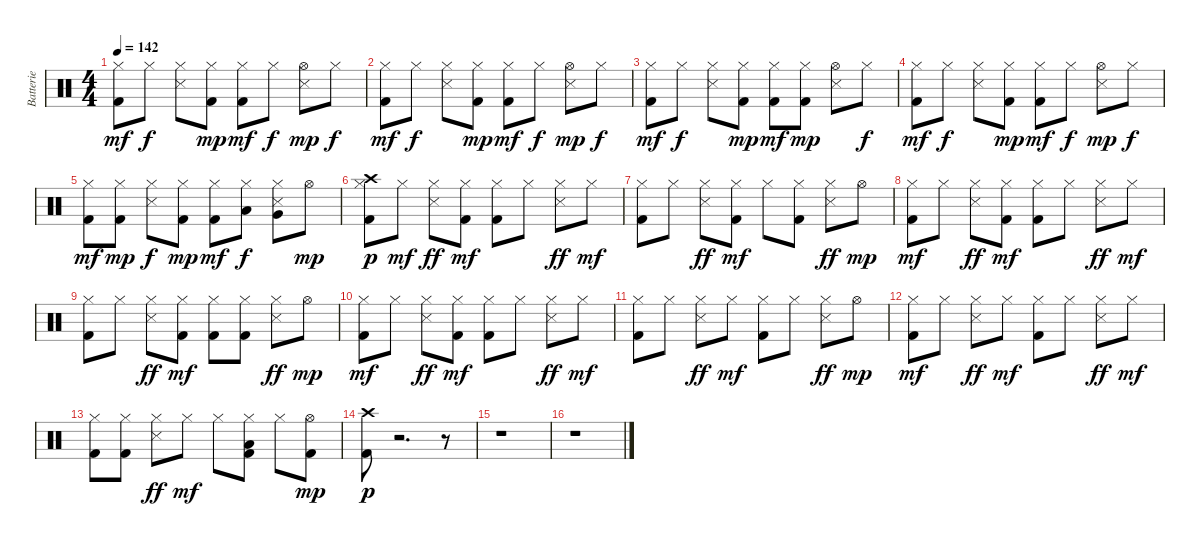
\track ("Batterie" "Batterie") {instrument percussion}
\staff {score}
\articulation defaults
\ts (4 4)
\tempo 142
\clef neutral
\ks c
("Kick (hit) 2" "Hi-Hat (closed)").8{dy mf} "Hi-Hat (closed)".8{dy f} ("Hi-Hat (closed)" "Snare (side stick) 3").8 ("Kick (hit) 2" "Hi-Hat (closed)").8{dy mp} ("Kick (hit) 2" "Hi-Hat (closed)").8{dy mf} "Hi-Hat (closed)".8{dy f} ("Hi-Hat (open)" "Snare (side stick) 3").8{dy mp} "Hi-Hat (closed)".8{dy f} |
("Kick (hit) 2" "Hi-Hat (closed)").8{dy mf} "Hi-Hat (closed)".8{dy f} ("Hi-Hat (closed)" "Snare (side stick) 3").8 ("Kick (hit) 2" "Hi-Hat (closed)").8{dy mp} ("Kick (hit) 2" "Hi-Hat (closed)").8{dy mf} "Hi-Hat (closed)".8{dy f} ("Hi-Hat (open)" "Snare (side stick) 3").8{dy mp} "Hi-Hat (closed)".8{dy f} |
("Kick (hit) 2" "Hi-Hat (closed)").8{dy mf} "Hi-Hat (closed)".8{dy f} ("Hi-Hat (closed)" "Snare (side stick) 3").8 ("Kick (hit) 2" "Hi-Hat (closed)").8{dy mp} ("Kick (hit) 2" "Hi-Hat (closed)").8{dy mf} ("Kick (hit) 2" "Hi-Hat (closed)").8{dy mp} ("Hi-Hat (open)" "Snare (side stick) 3").8 "Hi-Hat (closed)".8{dy f} |
("Kick (hit) 2" "Hi-Hat (closed)").8{dy mf} "Hi-Hat (closed)".8{dy f} ("Hi-Hat (closed)" "Snare (side stick) 3").8 ("Kick (hit) 2" "Hi-Hat (closed)").8{dy mp} ("Kick (hit) 2" "Hi-Hat (closed)").8{dy mf} "Hi-Hat (closed)".8{dy f} ("Hi-Hat (open)" "Snare (side stick) 3").8{dy mp} "Hi-Hat (closed)".8{dy f} |
("Kick (hit) 2" "Hi-Hat (closed)").8{dy mf} ("Kick (hit) 2" "Hi-Hat (closed)").8{dy mp} ("Hi-Hat (closed)" "Snare (side stick) 3").8{dy f} ("Kick (hit) 2" "Hi-Hat (closed)").8{dy mp} ("Kick (hit) 2" "Hi-Hat (closed)").8{dy mf} ("Hi-Hat (closed)" "Low Floor Tom (hit)").8{dy f} ("Hi-Hat (closed)" "Very Low Tom (hit)" "Snare (side stick) 3").8 "Hi-Hat (open)".8{dy mp} |
("Kick (hit) 2" "Hi-Hat (closed)" "Crash high (hit)").8{dy p} "Hi-Hat (closed)".8{dy mf} ("Hi-Hat (closed)" "Snare (side stick) 3").8{dy ff} ("Kick (hit) 2" "Hi-Hat (closed)").8{dy mf} ("Kick (hit) 2" "Hi-Hat (closed)").8 "Hi-Hat (closed)".8 ("Hi-Hat (closed)" "Snare (side stick) 3").8{dy ff} "Hi-Hat (closed)".8{dy mf} |
("Kick (hit) 2" "Hi-Hat (closed)").8 "Hi-Hat (closed)".8 ("Hi-Hat (closed)" "Snare (side stick) 3").8{dy ff} ("Kick (hit) 2" "Hi-Hat (closed)").8{dy mf} "Hi-Hat (closed)".8 ("Kick (hit) 2" "Hi-Hat (closed)").8 ("Hi-Hat (closed)" "Snare (side stick) 3").8{dy ff} "Hi-Hat (open)".8{dy mp} |
("Kick (hit) 2" "Hi-Hat (closed)").8{dy mf} "Hi-Hat (closed)".8 ("Hi-Hat (closed)" "Snare (side stick) 3").8{dy ff} ("Kick (hit) 2" "Hi-Hat (closed)").8{dy mf} ("Kick (hit) 2" "Hi-Hat (closed)").8 "Hi-Hat (closed)".8 ("Hi-Hat (closed)" "Snare (side stick) 3").8{dy ff} "Hi-Hat (closed)".8{dy mf} |
("Kick (hit) 2" "Hi-Hat (closed)").8 "Hi-Hat (closed)".8 ("Hi-Hat (closed)" "Snare (side stick) 3").8{dy ff} ("Kick (hit) 2" "Hi-Hat (closed)").8{dy mf} ("Kick (hit) 2" "Hi-Hat (closed)").8 ("Kick (hit) 2" "Hi-Hat (closed)").8 ("Hi-Hat (closed)" "Snare (side stick) 3").8{dy ff} "Hi-Hat (open)".8{dy mp} |
("Kick (hit) 2" "Hi-Hat (closed)").8{dy mf} "Hi-Hat (closed)".8 ("Hi-Hat (closed)" "Snare (side stick) 3").8{dy ff} ("Kick (hit) 2" "Hi-Hat (closed)").8{dy mf} ("Kick (hit) 2" "Hi-Hat (closed)").8 "Hi-Hat (closed)".8 ("Hi-Hat (closed)" "Snare (side stick) 3").8{dy ff} "Hi-Hat (closed)".8{dy mf} |
("Kick (hit) 2" "Hi-Hat (closed)").8 "Hi-Hat (closed)".8 ("Hi-Hat (closed)" "Snare (side stick) 3").8{dy ff} "Hi-Hat (closed)".8{dy mf} ("Kick (hit) 2" "Hi-Hat (closed)").8 "Hi-Hat (closed)".8 ("Hi-Hat (closed)" "Snare (side stick) 3").8{dy ff} "Hi-Hat (open)".8{dy mp} |
("Kick (hit) 2" "Hi-Hat (closed)").8{dy mf} "Hi-Hat (closed)".8 ("Hi-Hat (closed)" "Snare (side stick) 3").8{dy ff} "Hi-Hat (closed)".8{dy mf} ("Kick (hit) 2" "Hi-Hat (closed)").8 "Hi-Hat (closed)".8 ("Hi-Hat (closed)" "Snare (side stick) 3").8{dy ff} "Hi-Hat (closed)".8{dy mf} |
("Kick (hit) 2" "Hi-Hat (closed)").8 ("Kick (hit) 2" "Hi-Hat (closed)").8 ("Hi-Hat (closed)" "Snare (side stick) 3").8{dy ff} "Hi-Hat (closed)".8{dy mf} "Hi-Hat (closed)".8 ("Kick (hit) 2" "Hi-Hat (closed)" "Low Floor Tom (hit)").8 "Hi-Hat (closed)".8 ("Kick (hit) 2" "Hi-Hat (open)").8{dy mp} |
("Kick (hit) 2" "Crash high (hit)").8{dy p} r.2{d} r.8 |
r.1 |
r.1
